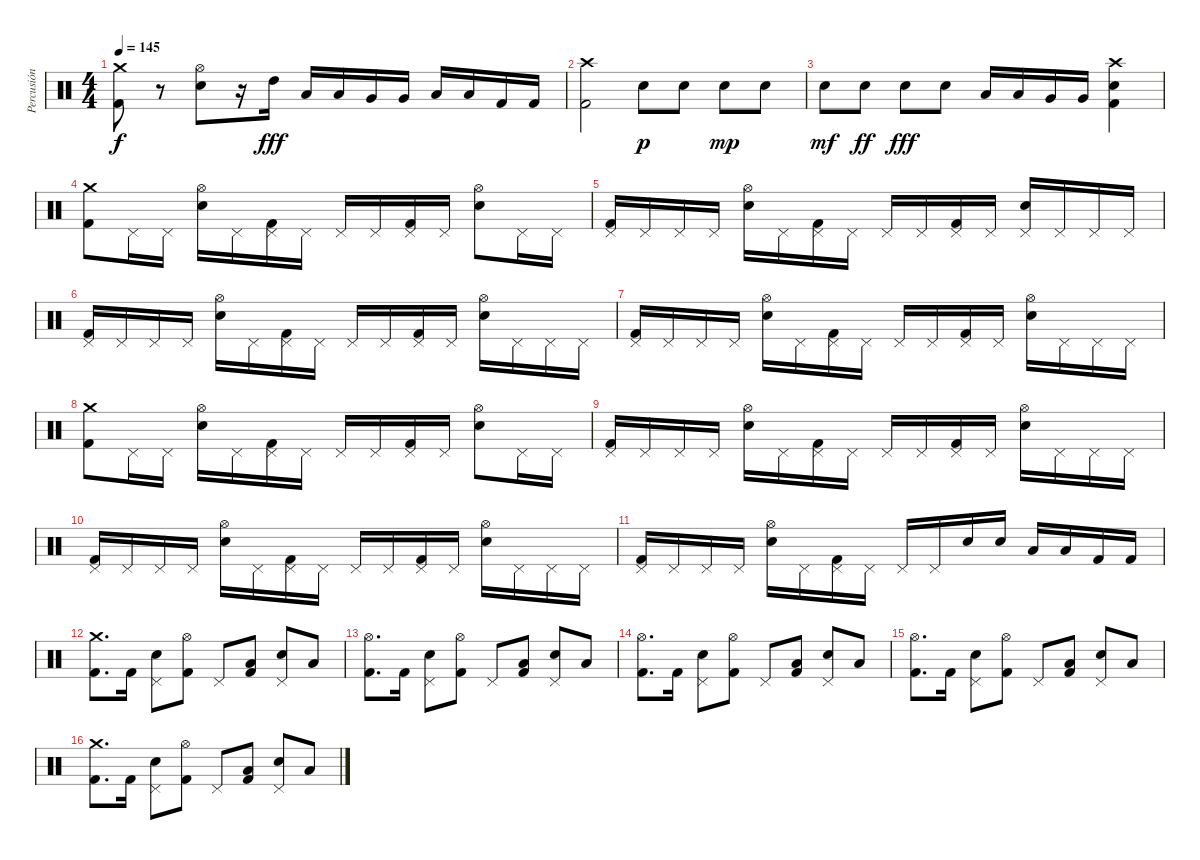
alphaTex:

\track ("Percusión" "Percusión") {instrument percussion}
\staff {score}
\articulation defaults
\ts (4 4)
\tempo 145
\clef neutral
\ks c
("Crash medium (hit)" "Kick (hit) 2").8{dy f} r.8 ("Hi-Hat (open)" "Electric Snare (hit)").8 r.16 "High Tom (hit)".16{dy fff} "Low Tom (hit)".16 "Low Tom (hit)".16 "Very Low Tom (hit)".16 "Very Low Tom (hit)".16 "Low Floor Tom (hit)".16 "Low Floor Tom (hit)".16 "Kick (hit) 2".16 "Kick (hit) 2".16 |
("Crash high (hit)" "Kick (hit) 2").2 "Electric Snare (hit)".8{dy p} "Electric Snare (hit)".8 "Electric Snare (hit)".8{dy mp} "Electric Snare (hit)".8 |
"Electric Snare (hit)".8{dy mf} "Electric Snare (hit)".8{dy ff} "Electric Snare (hit)".8{dy fff} "Electric Snare (hit)".8 "Low Tom (hit)".16 "Low Tom (hit)".16 "Very Low Tom (hit)".16 "Very Low Tom (hit)".16 ("Crash high (hit)" "Electric Snare (hit)" "Kick (hit) 2").4 |
("Crash medium (hit)" "Kick (hit) 2").8 "Pedal Hi-Hat (hit)".16 "Pedal Hi-Hat (hit)".16 ("Hi-Hat (open)" "Electric Snare (hit)").16 "Pedal Hi-Hat (hit)".16 ("Pedal Hi-Hat (hit)" "Kick (hit) 2").16 "Pedal Hi-Hat (hit)".16 "Pedal Hi-Hat (hit)".16 "Pedal Hi-Hat (hit)".16 ("Pedal Hi-Hat (hit)" "Kick (hit) 2").16 "Pedal Hi-Hat (hit)".16 ("Hi-Hat (open)" "Electric Snare (hit)").8 "Pedal Hi-Hat (hit)".16 "Pedal Hi-Hat (hit)".16 |
("Pedal Hi-Hat (hit)" "Kick (hit) 2").16 "Pedal Hi-Hat (hit)".16 "Pedal Hi-Hat (hit)".16 "Pedal Hi-Hat (hit)".16 ("Hi-Hat (open)" "Electric Snare (hit)").16 "Pedal Hi-Hat (hit)".16 ("Pedal Hi-Hat (hit)" "Kick (hit) 2").16 "Pedal Hi-Hat (hit)".16 "Pedal Hi-Hat (hit)".16 "Pedal Hi-Hat (hit)".16 ("Pedal Hi-Hat (hit)" "Kick (hit) 2").16 "Pedal Hi-Hat (hit)".16 ("Pedal Hi-Hat (hit)" "Electric Snare (hit)").16 "Pedal Hi-Hat (hit)".16 "Pedal Hi-Hat (hit)".16 "Pedal Hi-Hat (hit)".16 |
("Pedal Hi-Hat (hit)" "Kick (hit) 2").16 "Pedal Hi-Hat (hit)".16 "Pedal Hi-Hat (hit)".16 "Pedal Hi-Hat (hit)".16 ("Hi-Hat (open)" "Electric Snare (hit)").16 "Pedal Hi-Hat (hit)".16 ("Pedal Hi-Hat (hit)" "Kick (hit) 2").16 "Pedal Hi-Hat (hit)".16 "Pedal Hi-Hat (hit)".16 "Pedal Hi-Hat (hit)".16 ("Pedal Hi-Hat (hit)" "Kick (hit) 2").16 "Pedal Hi-Hat (hit)".16 ("Hi-Hat (open)" "Electric Snare (hit)").16 "Pedal Hi-Hat (hit)".16 "Pedal Hi-Hat (hit)".16 "Pedal Hi-Hat (hit)".16 |
("Pedal Hi-Hat (hit)" "Kick (hit) 2").16 "Pedal Hi-Hat (hit)".16 "Pedal Hi-Hat (hit)".16 "Pedal Hi-Hat (hit)".16 ("Hi-Hat (open)" "Electric Snare (hit)").16 "Pedal Hi-Hat (hit)".16 ("Pedal Hi-Hat (hit)" "Kick (hit) 2").16 "Pedal Hi-Hat (hit)".16 "Pedal Hi-Hat (hit)".16 "Pedal Hi-Hat (hit)".16 ("Pedal Hi-Hat (hit)" "Kick (hit) 2").16 "Pedal Hi-Hat (hit)".16 ("Hi-Hat (open)" "Electric Snare (hit)").16 "Pedal Hi-Hat (hit)".16 "Pedal Hi-Hat (hit)".16 "Pedal Hi-Hat (hit)".16 |
("Crash medium (hit)" "Kick (hit) 2").8 "Pedal Hi-Hat (hit)".16 "Pedal Hi-Hat (hit)".16 ("Hi-Hat (open)" "Electric Snare (hit)").16 "Pedal Hi-Hat (hit)".16 ("Pedal Hi-Hat (hit)" "Kick (hit) 2").16 "Pedal Hi-Hat (hit)".16 "Pedal Hi-Hat (hit)".16 "Pedal Hi-Hat (hit)".16 ("Pedal Hi-Hat (hit)" "Kick (hit) 2").16 "Pedal Hi-Hat (hit)".16 ("Hi-Hat (open)" "Electric Snare (hit)").8 "Pedal Hi-Hat (hit)".16 "Pedal Hi-Hat (hit)".16 |
("Pedal Hi-Hat (hit)" "Kick (hit) 2").16 "Pedal Hi-Hat (hit)".16 "Pedal Hi-Hat (hit)".16 "Pedal Hi-Hat (hit)".16 ("Hi-Hat (open)" "Electric Snare (hit)").16 "Pedal Hi-Hat (hit)".16 ("Pedal Hi-Hat (hit)" "Kick (hit) 2").16 "Pedal Hi-Hat (hit)".16 "Pedal Hi-Hat (hit)".16 "Pedal Hi-Hat (hit)".16 ("Pedal Hi-Hat (hit)" "Kick (hit) 2").16 "Pedal Hi-Hat (hit)".16 ("Hi-Hat (open)" "Electric Snare (hit)").16 "Pedal Hi-Hat (hit)".16 "Pedal Hi-Hat (hit)".16 "Pedal Hi-Hat (hit)".16 |
("Pedal Hi-Hat (hit)" "Kick (hit) 2").16 "Pedal Hi-Hat (hit)".16 "Pedal Hi-Hat (hit)".16 "Pedal Hi-Hat (hit)".16 ("Hi-Hat (open)" "Electric Snare (hit)").16 "Pedal Hi-Hat (hit)".16 ("Pedal Hi-Hat (hit)" "Kick (hit) 2").16 "Pedal Hi-Hat (hit)".16 "Pedal Hi-Hat (hit)".16 "Pedal Hi-Hat (hit)".16 ("Pedal Hi-Hat (hit)" "Kick (hit) 2").16 "Pedal Hi-Hat (hit)".16 ("Hi-Hat (open)" "Electric Snare (hit)").16 "Pedal Hi-Hat (hit)".16 "Pedal Hi-Hat (hit)".16 "Pedal Hi-Hat (hit)".16 |
("Pedal Hi-Hat (hit)" "Kick (hit) 2").16 "Pedal Hi-Hat (hit)".16 "Pedal Hi-Hat (hit)".16 "Pedal Hi-Hat (hit)".16 ("Hi-Hat (open)" "Electric Snare (hit)").16 "Pedal Hi-Hat (hit)".16 ("Pedal Hi-Hat (hit)" "Kick (hit) 2").16 "Pedal Hi-Hat (hit)".16 "Pedal Hi-Hat (hit)".16 "Pedal Hi-Hat (hit)".16 "Electric Snare (hit)".16 "Electric Snare (hit)".16 "Low Tom (hit)".16 "Low Tom (hit)".16 "Kick (hit) 2".16 "Kick (hit) 2".16 |
("Crash medium (hit)" "Kick (hit) 2").8{d} "Kick (hit) 2".16 ("Pedal Hi-Hat (hit)" "Electric Snare (hit)").8 ("Hi-Hat (open)" "Kick (hit) 2").8 "Pedal Hi-Hat (hit)".8 ("Low Tom (hit)" "Kick (hit) 2").8 ("Pedal Hi-Hat (hit)" "Electric Snare (hit)").8 "Low Tom (hit)".8 |
("Hi-Hat (open)" "Kick (hit) 2").8{d} "Kick (hit) 2".16 ("Pedal Hi-Hat (hit)" "Electric Snare (hit)").8 ("Hi-Hat (open)" "Kick (hit) 2").8 "Pedal Hi-Hat (hit)".8 ("Low Tom (hit)" "Kick (hit) 2").8 ("Pedal Hi-Hat (hit)" "Electric Snare (hit)").8 "Low Tom (hit)".8 |
("Hi-Hat (open)" "Kick (hit) 2").8{d} "Kick (hit) 2".16 ("Pedal Hi-Hat (hit)" "Electric Snare (hit)").8 ("Hi-Hat (open)" "Kick (hit) 2").8 "Pedal Hi-Hat (hit)".8 ("Low Tom (hit)" "Kick (hit) 2").8 ("Pedal Hi-Hat (hit)" "Electric Snare (hit)").8 "Low Tom (hit)".8 |
("Hi-Hat (open)" "Kick (hit) 2").8{d} "Kick (hit) 2".16 ("Pedal Hi-Hat (hit)" "Electric Snare (hit)").8 ("Hi-Hat (open)" "Kick (hit) 2").8 "Pedal Hi-Hat (hit)".8 ("Low Tom (hit)" "Kick (hit) 2").8 ("Pedal Hi-Hat (hit)" "Electric Snare (hit)").8 "Low Tom (hit)".8 |
("Crash medium (hit)" "Kick (hit) 2").8{d} "Kick (hit) 2".16 ("Pedal Hi-Hat (hit)" "Electric Snare (hit)").8 ("Hi-Hat (open)" "Kick (hit) 2").8 "Pedal Hi-Hat (hit)".8 ("Low Tom (hit)" "Kick (hit) 2").8 ("Pedal Hi-Hat (hit)" "Electric Snare (hit)").8 "Low Tom (hit)".8
